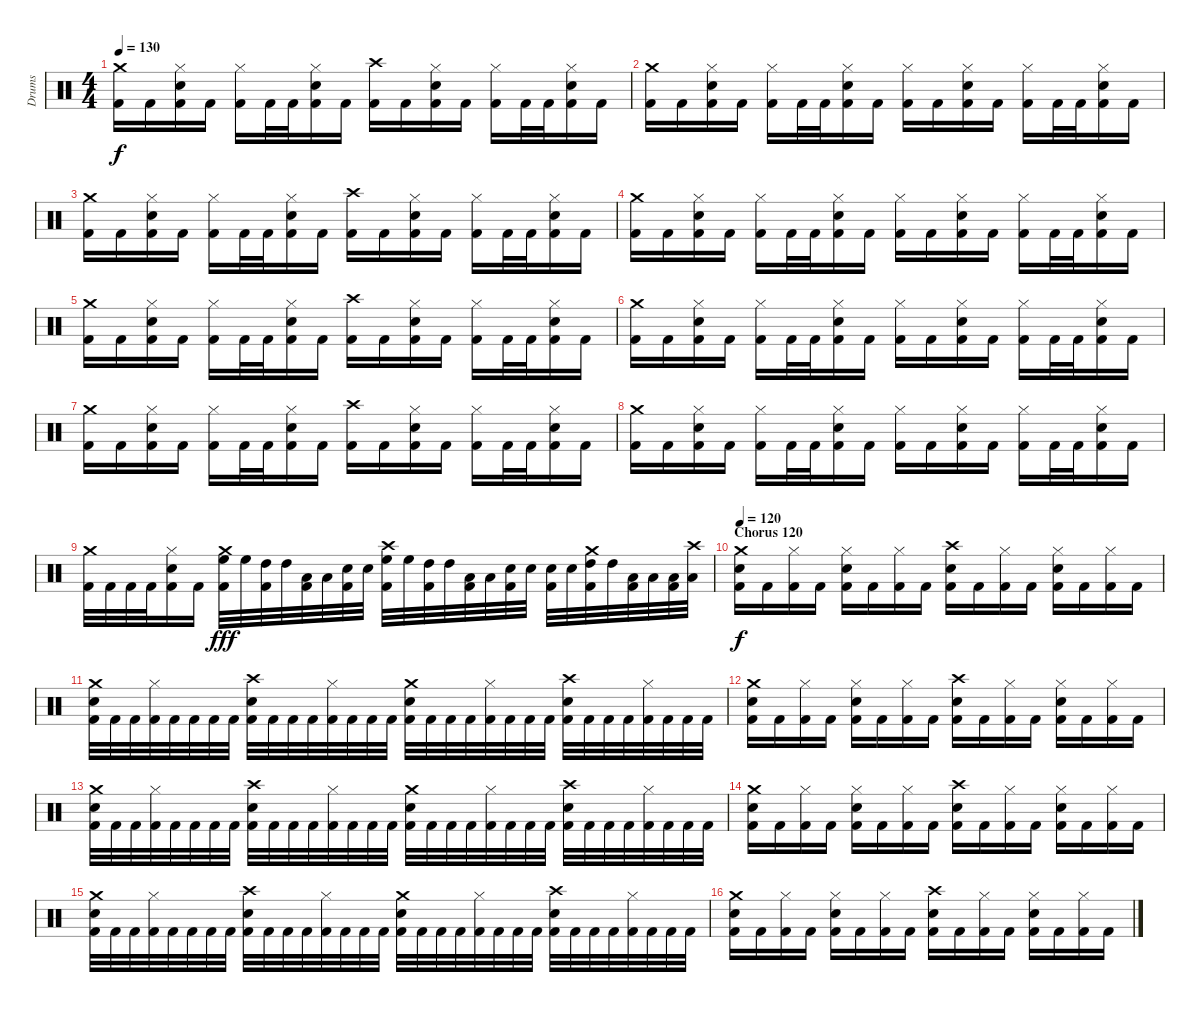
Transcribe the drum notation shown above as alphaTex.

\track ("Drums" "Drums") {instrument percussion}
\staff {score}
\articulation defaults
\ts (4 4)
\tempo 130
\clef neutral
\ks c
("Crash medium (hit)" "Kick (hit) 2").16{dy f} "Kick (hit) 2".16 ("Hi-Hat (closed)" "Electric Snare (hit)" "Kick (hit) 2").16 "Kick (hit) 2".16 ("Hi-Hat (closed)" "Kick (hit) 2").16 "Kick (hit) 2".32 "Kick (hit) 2".32 ("Hi-Hat (closed)" "Electric Snare (hit)" "Kick (hit) 2").16 "Kick (hit) 2".16 ("Crash high (hit)" "Kick (hit) 2").16 "Kick (hit) 2".16 ("Hi-Hat (closed)" "Electric Snare (hit)" "Kick (hit) 2").16 "Kick (hit) 2".16 ("Hi-Hat (closed)" "Kick (hit) 2").16 "Kick (hit) 2".32 "Kick (hit) 2".32 ("Hi-Hat (closed)" "Electric Snare (hit)" "Kick (hit) 2").16 "Kick (hit) 2".16 |
("Crash medium (hit)" "Kick (hit) 2").16 "Kick (hit) 2".16 ("Hi-Hat (closed)" "Electric Snare (hit)" "Kick (hit) 2").16 "Kick (hit) 2".16 ("Hi-Hat (closed)" "Kick (hit) 2").16 "Kick (hit) 2".32 "Kick (hit) 2".32 ("Hi-Hat (closed)" "Electric Snare (hit)" "Kick (hit) 2").16 "Kick (hit) 2".16 ("Hi-Hat (closed)" "Kick (hit) 2").16 "Kick (hit) 2".16 ("Hi-Hat (closed)" "Electric Snare (hit)" "Kick (hit) 2").16 "Kick (hit) 2".16 ("Hi-Hat (closed)" "Kick (hit) 2").16 "Kick (hit) 2".32 "Kick (hit) 2".32 ("Hi-Hat (closed)" "Electric Snare (hit)" "Kick (hit) 2").16 "Kick (hit) 2".16 |
("Crash medium (hit)" "Kick (hit) 2").16 "Kick (hit) 2".16 ("Hi-Hat (closed)" "Electric Snare (hit)" "Kick (hit) 2").16 "Kick (hit) 2".16 ("Hi-Hat (closed)" "Kick (hit) 2").16 "Kick (hit) 2".32 "Kick (hit) 2".32 ("Hi-Hat (closed)" "Electric Snare (hit)" "Kick (hit) 2").16 "Kick (hit) 2".16 ("Crash high (hit)" "Kick (hit) 2").16 "Kick (hit) 2".16 ("Hi-Hat (closed)" "Electric Snare (hit)" "Kick (hit) 2").16 "Kick (hit) 2".16 ("Hi-Hat (closed)" "Kick (hit) 2").16 "Kick (hit) 2".32 "Kick (hit) 2".32 ("Hi-Hat (closed)" "Electric Snare (hit)" "Kick (hit) 2").16 "Kick (hit) 2".16 |
("Crash medium (hit)" "Kick (hit) 2").16 "Kick (hit) 2".16 ("Hi-Hat (closed)" "Electric Snare (hit)" "Kick (hit) 2").16 "Kick (hit) 2".16 ("Hi-Hat (closed)" "Kick (hit) 2").16 "Kick (hit) 2".32 "Kick (hit) 2".32 ("Hi-Hat (closed)" "Electric Snare (hit)" "Kick (hit) 2").16 "Kick (hit) 2".16 ("Hi-Hat (closed)" "Kick (hit) 2").16 "Kick (hit) 2".16 ("Hi-Hat (closed)" "Electric Snare (hit)" "Kick (hit) 2").16 "Kick (hit) 2".16 ("Hi-Hat (closed)" "Kick (hit) 2").16 "Kick (hit) 2".32 "Kick (hit) 2".32 ("Hi-Hat (closed)" "Electric Snare (hit)" "Kick (hit) 2").16 "Kick (hit) 2".16 |
("Crash medium (hit)" "Kick (hit) 2").16 "Kick (hit) 2".16 ("Hi-Hat (closed)" "Electric Snare (hit)" "Kick (hit) 2").16 "Kick (hit) 2".16 ("Hi-Hat (closed)" "Kick (hit) 2").16 "Kick (hit) 2".32 "Kick (hit) 2".32 ("Hi-Hat (closed)" "Electric Snare (hit)" "Kick (hit) 2").16 "Kick (hit) 2".16 ("Crash high (hit)" "Kick (hit) 2").16 "Kick (hit) 2".16 ("Hi-Hat (closed)" "Electric Snare (hit)" "Kick (hit) 2").16 "Kick (hit) 2".16 ("Hi-Hat (closed)" "Kick (hit) 2").16 "Kick (hit) 2".32 "Kick (hit) 2".32 ("Hi-Hat (closed)" "Electric Snare (hit)" "Kick (hit) 2").16 "Kick (hit) 2".16 |
("Crash medium (hit)" "Kick (hit) 2").16 "Kick (hit) 2".16 ("Hi-Hat (closed)" "Electric Snare (hit)" "Kick (hit) 2").16 "Kick (hit) 2".16 ("Hi-Hat (closed)" "Kick (hit) 2").16 "Kick (hit) 2".32 "Kick (hit) 2".32 ("Hi-Hat (closed)" "Electric Snare (hit)" "Kick (hit) 2").16 "Kick (hit) 2".16 ("Hi-Hat (closed)" "Kick (hit) 2").16 "Kick (hit) 2".16 ("Hi-Hat (closed)" "Electric Snare (hit)" "Kick (hit) 2").16 "Kick (hit) 2".16 ("Hi-Hat (closed)" "Kick (hit) 2").16 "Kick (hit) 2".32 "Kick (hit) 2".32 ("Hi-Hat (closed)" "Electric Snare (hit)" "Kick (hit) 2").16 "Kick (hit) 2".16 |
("Crash medium (hit)" "Kick (hit) 2").16 "Kick (hit) 2".16 ("Hi-Hat (closed)" "Electric Snare (hit)" "Kick (hit) 2").16 "Kick (hit) 2".16 ("Hi-Hat (closed)" "Kick (hit) 2").16 "Kick (hit) 2".32 "Kick (hit) 2".32 ("Hi-Hat (closed)" "Electric Snare (hit)" "Kick (hit) 2").16 "Kick (hit) 2".16 ("Crash high (hit)" "Kick (hit) 2").16 "Kick (hit) 2".16 ("Hi-Hat (closed)" "Electric Snare (hit)" "Kick (hit) 2").16 "Kick (hit) 2".16 ("Hi-Hat (closed)" "Kick (hit) 2").16 "Kick (hit) 2".32 "Kick (hit) 2".32 ("Hi-Hat (closed)" "Electric Snare (hit)" "Kick (hit) 2").16 "Kick (hit) 2".16 |
("Crash medium (hit)" "Kick (hit) 2").16 "Kick (hit) 2".16 ("Hi-Hat (closed)" "Electric Snare (hit)" "Kick (hit) 2").16 "Kick (hit) 2".16 ("Hi-Hat (closed)" "Kick (hit) 2").16 "Kick (hit) 2".32 "Kick (hit) 2".32 ("Hi-Hat (closed)" "Electric Snare (hit)" "Kick (hit) 2").16 "Kick (hit) 2".16 ("Hi-Hat (closed)" "Kick (hit) 2").16 "Kick (hit) 2".16 ("Hi-Hat (closed)" "Electric Snare (hit)" "Kick (hit) 2").16 "Kick (hit) 2".16 ("Hi-Hat (closed)" "Kick (hit) 2").16 "Kick (hit) 2".32 "Kick (hit) 2".32 ("Hi-Hat (closed)" "Electric Snare (hit)" "Kick (hit) 2").16 "Kick (hit) 2".16 |
("Crash medium (hit)" "Kick (hit) 2").32 "Kick (hit) 2".32 "Kick (hit) 2".32 "Kick (hit) 2".32 ("Hi-Hat (closed)" "Electric Snare (hit)" "Kick (hit) 2").16 "Kick (hit) 2".16 ("Crash medium (hit)" "High Floor Tom (hit)" "Kick (hit) 2").32{dy fff} "High Floor Tom (hit)".32 ("High Tom (hit)" "Kick (hit) 2").32 "High Tom (hit)".32 ("Low Tom (hit)" "Kick (hit) 2").32 "Low Tom (hit)".32 ("Electric Snare (hit)" "Kick (hit) 2").32 "Electric Snare (hit)".32 ("Crash high (hit)" "High Floor Tom (hit)" "Kick (hit) 2").32 "High Floor Tom (hit)".32 ("High Tom (hit)" "Kick (hit) 2").32 "High Tom (hit)".32 ("Low Tom (hit)" "Kick (hit) 2").32 "Low Tom (hit)".32 ("Electric Snare (hit)" "Kick (hit) 2").32 "Electric Snare (hit)".32 ("Electric Snare (hit)" "Kick (hit) 2").32 "Electric Snare (hit)".32 ("Crash medium (hit)" "High Tom (hit)" "Kick (hit) 2").32 "High Tom (hit)".32 ("Low Tom (hit)" "Kick (hit) 2").32 "Low Tom (hit)".32 ("Low Floor Tom (hit)" "Kick (hit) 2").32 ("Crash high (hit)" "Low Floor Tom (hit)").32 |
\section ("" "Chorus 120")
\tempo 120
("Crash medium (hit)" "Electric Snare (hit)" "Kick (hit) 2").16{dy f} "Kick (hit) 2".16 ("Hi-Hat (closed)" "Kick (hit) 2").16 "Kick (hit) 2".16 ("Hi-Hat (closed)" "Electric Snare (hit)" "Kick (hit) 2").16 "Kick (hit) 2".16 ("Hi-Hat (closed)" "Kick (hit) 2").16 "Kick (hit) 2".16 ("Crash high (hit)" "Electric Snare (hit)" "Kick (hit) 2").16 "Kick (hit) 2".16 ("Hi-Hat (closed)" "Kick (hit) 2").16 "Kick (hit) 2".16 ("Hi-Hat (closed)" "Electric Snare (hit)" "Kick (hit) 2").16 "Kick (hit) 2".16 ("Hi-Hat (closed)" "Kick (hit) 2").16 "Kick (hit) 2".16 |
("Crash medium (hit)" "Electric Snare (hit)" "Kick (hit) 2").32 "Kick (hit) 2".32 "Kick (hit) 2".32 ("Hi-Hat (closed)" "Kick (hit) 2").32 "Kick (hit) 2".32 "Kick (hit) 2".32 "Kick (hit) 2".32 "Kick (hit) 2".32 ("Crash high (hit)" "Electric Snare (hit)" "Kick (hit) 2").32 "Kick (hit) 2".32 "Kick (hit) 2".32 "Kick (hit) 2".32 ("Hi-Hat (closed)" "Kick (hit) 2").32 "Kick (hit) 2".32 "Kick (hit) 2".32 "Kick (hit) 2".32 ("Crash medium (hit)" "Electric Snare (hit)" "Kick (hit) 2").32 "Kick (hit) 2".32 "Kick (hit) 2".32 "Kick (hit) 2".32 ("Hi-Hat (closed)" "Kick (hit) 2").32 "Kick (hit) 2".32 "Kick (hit) 2".32 "Kick (hit) 2".32 ("Crash high (hit)" "Electric Snare (hit)" "Kick (hit) 2").32 "Kick (hit) 2".32 "Kick (hit) 2".32 "Kick (hit) 2".32 ("Hi-Hat (closed)" "Kick (hit) 2").32 "Kick (hit) 2".32 "Kick (hit) 2".32 "Kick (hit) 2".32 |
("Crash medium (hit)" "Electric Snare (hit)" "Kick (hit) 2").16 "Kick (hit) 2".16 ("Hi-Hat (closed)" "Kick (hit) 2").16 "Kick (hit) 2".16 ("Hi-Hat (closed)" "Electric Snare (hit)" "Kick (hit) 2").16 "Kick (hit) 2".16 ("Hi-Hat (closed)" "Kick (hit) 2").16 "Kick (hit) 2".16 ("Crash high (hit)" "Electric Snare (hit)" "Kick (hit) 2").16 "Kick (hit) 2".16 ("Hi-Hat (closed)" "Kick (hit) 2").16 "Kick (hit) 2".16 ("Hi-Hat (closed)" "Electric Snare (hit)" "Kick (hit) 2").16 "Kick (hit) 2".16 ("Hi-Hat (closed)" "Kick (hit) 2").16 "Kick (hit) 2".16 |
("Crash medium (hit)" "Electric Snare (hit)" "Kick (hit) 2").32 "Kick (hit) 2".32 "Kick (hit) 2".32 ("Hi-Hat (closed)" "Kick (hit) 2").32 "Kick (hit) 2".32 "Kick (hit) 2".32 "Kick (hit) 2".32 "Kick (hit) 2".32 ("Crash high (hit)" "Electric Snare (hit)" "Kick (hit) 2").32 "Kick (hit) 2".32 "Kick (hit) 2".32 "Kick (hit) 2".32 ("Hi-Hat (closed)" "Kick (hit) 2").32 "Kick (hit) 2".32 "Kick (hit) 2".32 "Kick (hit) 2".32 ("Crash medium (hit)" "Electric Snare (hit)" "Kick (hit) 2").32 "Kick (hit) 2".32 "Kick (hit) 2".32 "Kick (hit) 2".32 ("Hi-Hat (closed)" "Kick (hit) 2").32 "Kick (hit) 2".32 "Kick (hit) 2".32 "Kick (hit) 2".32 ("Crash high (hit)" "Electric Snare (hit)" "Kick (hit) 2").32 "Kick (hit) 2".32 "Kick (hit) 2".32 "Kick (hit) 2".32 ("Hi-Hat (closed)" "Kick (hit) 2").32 "Kick (hit) 2".32 "Kick (hit) 2".32 "Kick (hit) 2".32 |
("Crash medium (hit)" "Electric Snare (hit)" "Kick (hit) 2").16 "Kick (hit) 2".16 ("Hi-Hat (closed)" "Kick (hit) 2").16 "Kick (hit) 2".16 ("Hi-Hat (closed)" "Electric Snare (hit)" "Kick (hit) 2").16 "Kick (hit) 2".16 ("Hi-Hat (closed)" "Kick (hit) 2").16 "Kick (hit) 2".16 ("Crash high (hit)" "Electric Snare (hit)" "Kick (hit) 2").16 "Kick (hit) 2".16 ("Hi-Hat (closed)" "Kick (hit) 2").16 "Kick (hit) 2".16 ("Hi-Hat (closed)" "Electric Snare (hit)" "Kick (hit) 2").16 "Kick (hit) 2".16 ("Hi-Hat (closed)" "Kick (hit) 2").16 "Kick (hit) 2".16 |
("Crash medium (hit)" "Electric Snare (hit)" "Kick (hit) 2").32 "Kick (hit) 2".32 "Kick (hit) 2".32 ("Hi-Hat (closed)" "Kick (hit) 2").32 "Kick (hit) 2".32 "Kick (hit) 2".32 "Kick (hit) 2".32 "Kick (hit) 2".32 ("Crash high (hit)" "Electric Snare (hit)" "Kick (hit) 2").32 "Kick (hit) 2".32 "Kick (hit) 2".32 "Kick (hit) 2".32 ("Hi-Hat (closed)" "Kick (hit) 2").32 "Kick (hit) 2".32 "Kick (hit) 2".32 "Kick (hit) 2".32 ("Crash medium (hit)" "Electric Snare (hit)" "Kick (hit) 2").32 "Kick (hit) 2".32 "Kick (hit) 2".32 "Kick (hit) 2".32 ("Hi-Hat (closed)" "Kick (hit) 2").32 "Kick (hit) 2".32 "Kick (hit) 2".32 "Kick (hit) 2".32 ("Crash high (hit)" "Electric Snare (hit)" "Kick (hit) 2").32 "Kick (hit) 2".32 "Kick (hit) 2".32 "Kick (hit) 2".32 ("Hi-Hat (closed)" "Kick (hit) 2").32 "Kick (hit) 2".32 "Kick (hit) 2".32 "Kick (hit) 2".32 |
("Crash medium (hit)" "Electric Snare (hit)" "Kick (hit) 2").16 "Kick (hit) 2".16 ("Hi-Hat (closed)" "Kick (hit) 2").16 "Kick (hit) 2".16 ("Hi-Hat (closed)" "Electric Snare (hit)" "Kick (hit) 2").16 "Kick (hit) 2".16 ("Hi-Hat (closed)" "Kick (hit) 2").16 "Kick (hit) 2".16 ("Crash high (hit)" "Electric Snare (hit)" "Kick (hit) 2").16 "Kick (hit) 2".16 ("Hi-Hat (closed)" "Kick (hit) 2").16 "Kick (hit) 2".16 ("Hi-Hat (closed)" "Electric Snare (hit)" "Kick (hit) 2").16 "Kick (hit) 2".16 ("Hi-Hat (closed)" "Kick (hit) 2").16 "Kick (hit) 2".16
